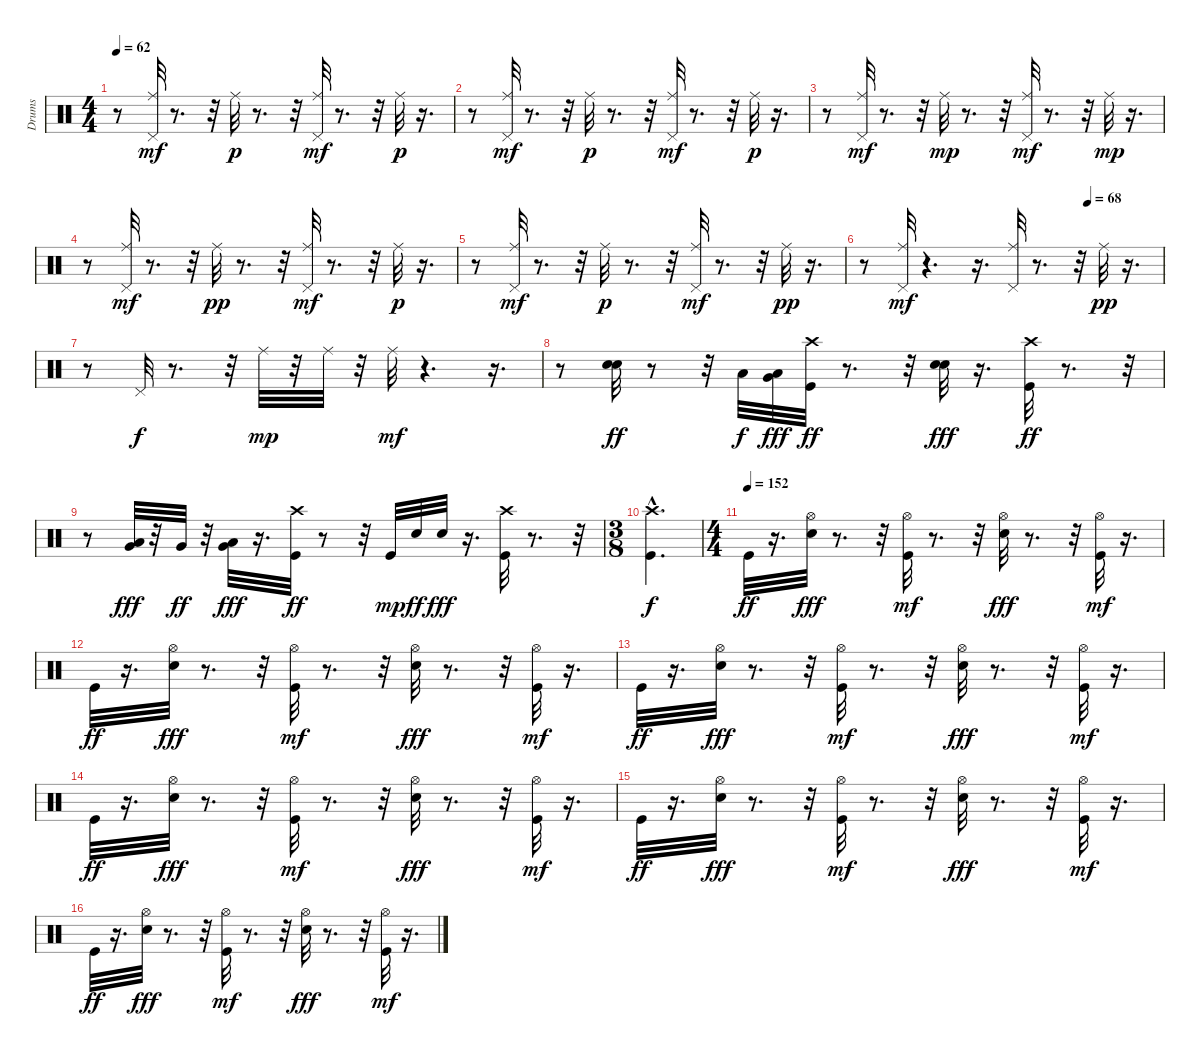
\track ("Drums" "Drums") {instrument percussion}
\staff {score}
\articulation defaults
\ts (4 4)
\tempo 62
\clef neutral
\ks c
r.8{dy p} ("Pedal Hi-Hat (hit)" "Ride (middle)").32{dy mf} r.8{d} r.32 "Ride (middle)".32{dy p} r.8{d} r.32 ("Pedal Hi-Hat (hit)" "Ride (middle)").32{dy mf} r.8{d} r.32 "Ride (middle)".32{dy p} r.16{d} |
r.8 ("Pedal Hi-Hat (hit)" "Ride (middle)").32{dy mf} r.8{d} r.32 "Ride (middle)".32{dy p} r.8{d} r.32 ("Pedal Hi-Hat (hit)" "Ride (middle)").32{dy mf} r.8{d} r.32 "Ride (middle)".32{dy p} r.16{d} |
r.8 ("Ride (middle)" "Pedal Hi-Hat (hit)").32{dy mf} r.8{d} r.32 "Ride (middle)".32{dy mp} r.8{d} r.32 ("Pedal Hi-Hat (hit)" "Ride (middle)").32{dy mf} r.8{d} r.32 "Ride (middle)".32{dy mp} r.16{d} |
r.8 ("Pedal Hi-Hat (hit)" "Ride (middle)").32{dy mf} r.8{d} r.32 "Ride (middle)".32{dy pp} r.8{d} r.32 ("Pedal Hi-Hat (hit)" "Ride (middle)").32{dy mf} r.8{d} r.32 "Ride (middle)".32{dy p} r.16{d} |
r.8 ("Pedal Hi-Hat (hit)" "Ride (middle)").32{dy mf} r.8{d} r.32 "Ride (middle)".32{dy p} r.8{d} r.32 ("Ride (middle)" "Pedal Hi-Hat (hit)").32{dy mf} r.8{d} r.32 "Ride (middle)".32{dy pp} r.16{d} |
\tempo (68 0.75)
r.8 ("Pedal Hi-Hat (hit)" "Ride (middle)").32{dy mf} r.4{d} r.16{d} ("Ride (middle)" "Pedal Hi-Hat (hit)").32 r.8{d} r.32 "Ride (middle)".32{dy pp} r.16{d} |
r.8 "Pedal Hi-Hat (hit)".32{dy f} r.8{d} r.32 "Ride (middle)".32{dy mp} r.32 "Ride (middle)".32 r.32 "Ride (middle)".32{dy mf} r.4{d} r.16{d} |
r.8 ("Snare (hit) 2" "Snare (hit) 2").32{dy ff} r.8 r.32 "Low Tom (hit)".32{dy f} ("Very Low Tom (hit)" "Low Floor Tom (hit)").32{dy fff} ("Kick (hit)" "Crash high (hit)").32{dy ff} r.8{d} r.32 ("Snare (hit) 2" "Snare (hit) 2").32{dy fff} r.16{d} ("Kick (hit)" "Crash high (hit)").32{dy ff} r.8{d} r.32 |
r.8 ("Very Low Tom (hit)" "Low Tom (hit)").32{dy fff} r.32 "Very Low Tom (hit)".32{dy ff} r.32 ("Very Low Tom (hit)" "Low Floor Tom (hit)").32{dy fff} r.16{d} ("Kick (hit)" "Crash high (hit)").32{dy ff} r.8 r.32 "Kick (hit)".32{dy mp} "Snare (hit) 2".32{dy ff} "Snare (hit) 2".32{dy fff} r.16{d} ("Kick (hit)" "Crash high (hit)").32 r.8{d} r.32 |
\ts (3 8)
("Kick (hit)"{hac} "Crash high (hit)"{hac}).4{d dy f} |
\ts (4 4)
\tempo (152)
"Kick (hit)".32{dy ff} r.16{d} ("Hi-Hat (open)" "Snare (hit) 2").32{dy fff} r.8{d} r.32 ("Hi-Hat (open)" "Kick (hit)").32{dy mf} r.8{d} r.32 ("Hi-Hat (open)" "Snare (hit) 2").32{dy fff} r.8{d} r.32 ("Kick (hit)" "Hi-Hat (open)").32{dy mf} r.16{d} |
"Kick (hit)".32{dy ff} r.16{d} ("Hi-Hat (open)" "Snare (hit) 2").32{dy fff} r.8{d} r.32 ("Hi-Hat (open)" "Kick (hit)").32{dy mf} r.8{d} r.32 ("Hi-Hat (open)" "Snare (hit) 2").32{dy fff} r.8{d} r.32 ("Kick (hit)" "Hi-Hat (open)").32{dy mf} r.16{d} |
"Kick (hit)".32{dy ff} r.16{d} ("Hi-Hat (open)" "Snare (hit) 2").32{dy fff} r.8{d} r.32 ("Hi-Hat (open)" "Kick (hit)").32{dy mf} r.8{d} r.32 ("Hi-Hat (open)" "Snare (hit) 2").32{dy fff} r.8{d} r.32 ("Kick (hit)" "Hi-Hat (open)").32{dy mf} r.16{d} |
"Kick (hit)".32{dy ff} r.16{d} ("Hi-Hat (open)" "Snare (hit) 2").32{dy fff} r.8{d} r.32 ("Hi-Hat (open)" "Kick (hit)").32{dy mf} r.8{d} r.32 ("Hi-Hat (open)" "Snare (hit) 2").32{dy fff} r.8{d} r.32 ("Kick (hit)" "Hi-Hat (open)").32{dy mf} r.16{d} |
"Kick (hit)".32{dy ff} r.16{d} ("Hi-Hat (open)" "Snare (hit) 2").32{dy fff} r.8{d} r.32 ("Hi-Hat (open)" "Kick (hit)").32{dy mf} r.8{d} r.32 ("Hi-Hat (open)" "Snare (hit) 2").32{dy fff} r.8{d} r.32 ("Kick (hit)" "Hi-Hat (open)").32{dy mf} r.16{d} |
"Kick (hit)".32{dy ff} r.16{d} ("Hi-Hat (open)" "Snare (hit) 2").32{dy fff} r.8{d} r.32 ("Hi-Hat (open)" "Kick (hit)").32{dy mf} r.8{d} r.32 ("Hi-Hat (open)" "Snare (hit) 2").32{dy fff} r.8{d} r.32 ("Kick (hit)" "Hi-Hat (open)").32{dy mf} r.16{d}
